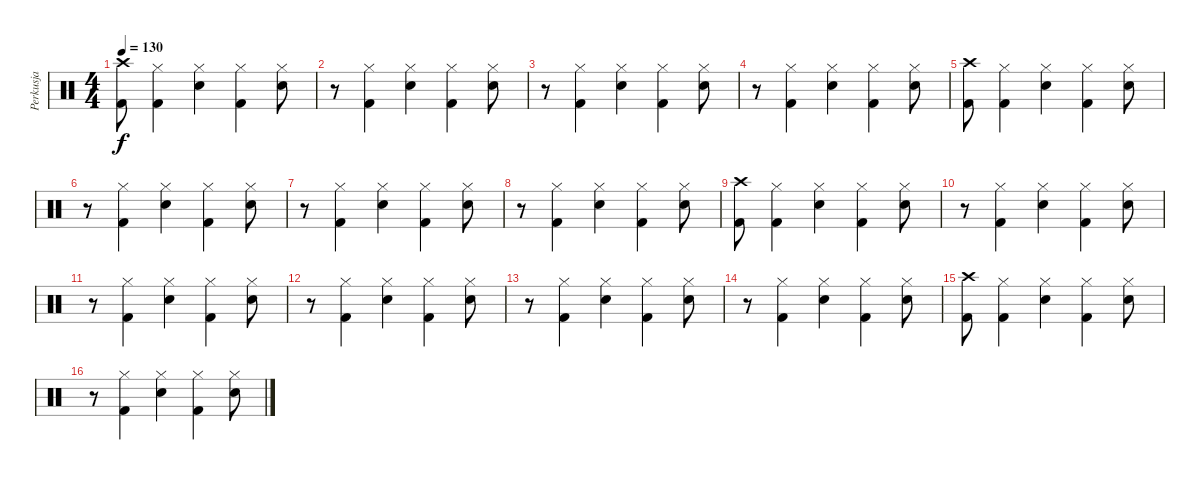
\track ("Perkusja" "Perkusja") {instrument percussion}
\staff {score}
\articulation defaults
\ts (4 4)
\tempo 130
\clef neutral
\ks c
("Crash high (hit)" "Kick (hit) 2").8{dy f} ("Hi-Hat (closed)" "Kick (hit) 2").4 ("Hi-Hat (closed)" "Snare (hit) 2").4 ("Hi-Hat (closed)" "Kick (hit) 2").4 ("Hi-Hat (closed)" "Snare (hit) 2").8 |
r.8 ("Hi-Hat (closed)" "Kick (hit) 2").4 ("Hi-Hat (closed)" "Snare (hit) 2").4 ("Hi-Hat (closed)" "Kick (hit) 2").4 ("Hi-Hat (closed)" "Snare (hit) 2").8 |
r.8 ("Hi-Hat (closed)" "Kick (hit) 2").4 ("Hi-Hat (closed)" "Snare (hit) 2").4 ("Hi-Hat (closed)" "Kick (hit) 2").4 ("Hi-Hat (closed)" "Snare (hit) 2").8 |
r.8 ("Hi-Hat (closed)" "Kick (hit) 2").4 ("Hi-Hat (closed)" "Snare (hit) 2").4 ("Hi-Hat (closed)" "Kick (hit) 2").4 ("Hi-Hat (closed)" "Snare (hit) 2").8 |
("Crash high (hit)" "Kick (hit) 2").8 ("Hi-Hat (closed)" "Kick (hit) 2").4 ("Hi-Hat (closed)" "Snare (hit) 2").4 ("Hi-Hat (closed)" "Kick (hit) 2").4 ("Hi-Hat (closed)" "Snare (hit) 2").8 |
r.8 ("Hi-Hat (closed)" "Kick (hit) 2").4 ("Hi-Hat (closed)" "Snare (hit) 2").4 ("Hi-Hat (closed)" "Kick (hit) 2").4 ("Hi-Hat (closed)" "Snare (hit) 2").8 |
r.8 ("Hi-Hat (closed)" "Kick (hit) 2").4 ("Hi-Hat (closed)" "Snare (hit) 2").4 ("Hi-Hat (closed)" "Kick (hit) 2").4 ("Hi-Hat (closed)" "Snare (hit) 2").8 |
r.8 ("Hi-Hat (closed)" "Kick (hit) 2").4 ("Hi-Hat (closed)" "Snare (hit) 2").4 ("Hi-Hat (closed)" "Kick (hit) 2").4 ("Hi-Hat (closed)" "Snare (hit) 2").8 |
("Crash high (hit)" "Kick (hit) 2").8 ("Hi-Hat (closed)" "Kick (hit) 2").4 ("Hi-Hat (closed)" "Snare (hit) 2").4 ("Hi-Hat (closed)" "Kick (hit) 2").4 ("Hi-Hat (closed)" "Snare (hit) 2").8 |
r.8 ("Hi-Hat (closed)" "Kick (hit) 2").4 ("Hi-Hat (closed)" "Snare (hit) 2").4 ("Hi-Hat (closed)" "Kick (hit) 2").4 ("Hi-Hat (closed)" "Snare (hit) 2").8 |
r.8 ("Hi-Hat (closed)" "Kick (hit) 2").4 ("Hi-Hat (closed)" "Snare (hit) 2").4 ("Hi-Hat (closed)" "Kick (hit) 2").4 ("Hi-Hat (closed)" "Snare (hit) 2").8 |
r.8 ("Hi-Hat (closed)" "Kick (hit) 2").4 ("Hi-Hat (closed)" "Snare (hit) 2").4 ("Hi-Hat (closed)" "Kick (hit) 2").4 ("Hi-Hat (closed)" "Snare (hit) 2").8 |
r.8 ("Hi-Hat (closed)" "Kick (hit) 2").4 ("Hi-Hat (closed)" "Snare (hit) 2").4 ("Hi-Hat (closed)" "Kick (hit) 2").4 ("Hi-Hat (closed)" "Snare (hit) 2").8 |
r.8 ("Hi-Hat (closed)" "Kick (hit) 2").4 ("Hi-Hat (closed)" "Snare (hit) 2").4 ("Hi-Hat (closed)" "Kick (hit) 2").4 ("Hi-Hat (closed)" "Snare (hit) 2").8 |
("Crash high (hit)" "Kick (hit) 2").8 ("Hi-Hat (closed)" "Kick (hit) 2").4 ("Hi-Hat (closed)" "Snare (hit) 2").4 ("Hi-Hat (closed)" "Kick (hit) 2").4 ("Hi-Hat (closed)" "Snare (hit) 2").8 |
r.8 ("Hi-Hat (closed)" "Kick (hit) 2").4 ("Hi-Hat (closed)" "Snare (hit) 2").4 ("Hi-Hat (closed)" "Kick (hit) 2").4 ("Hi-Hat (closed)" "Snare (hit) 2").8
